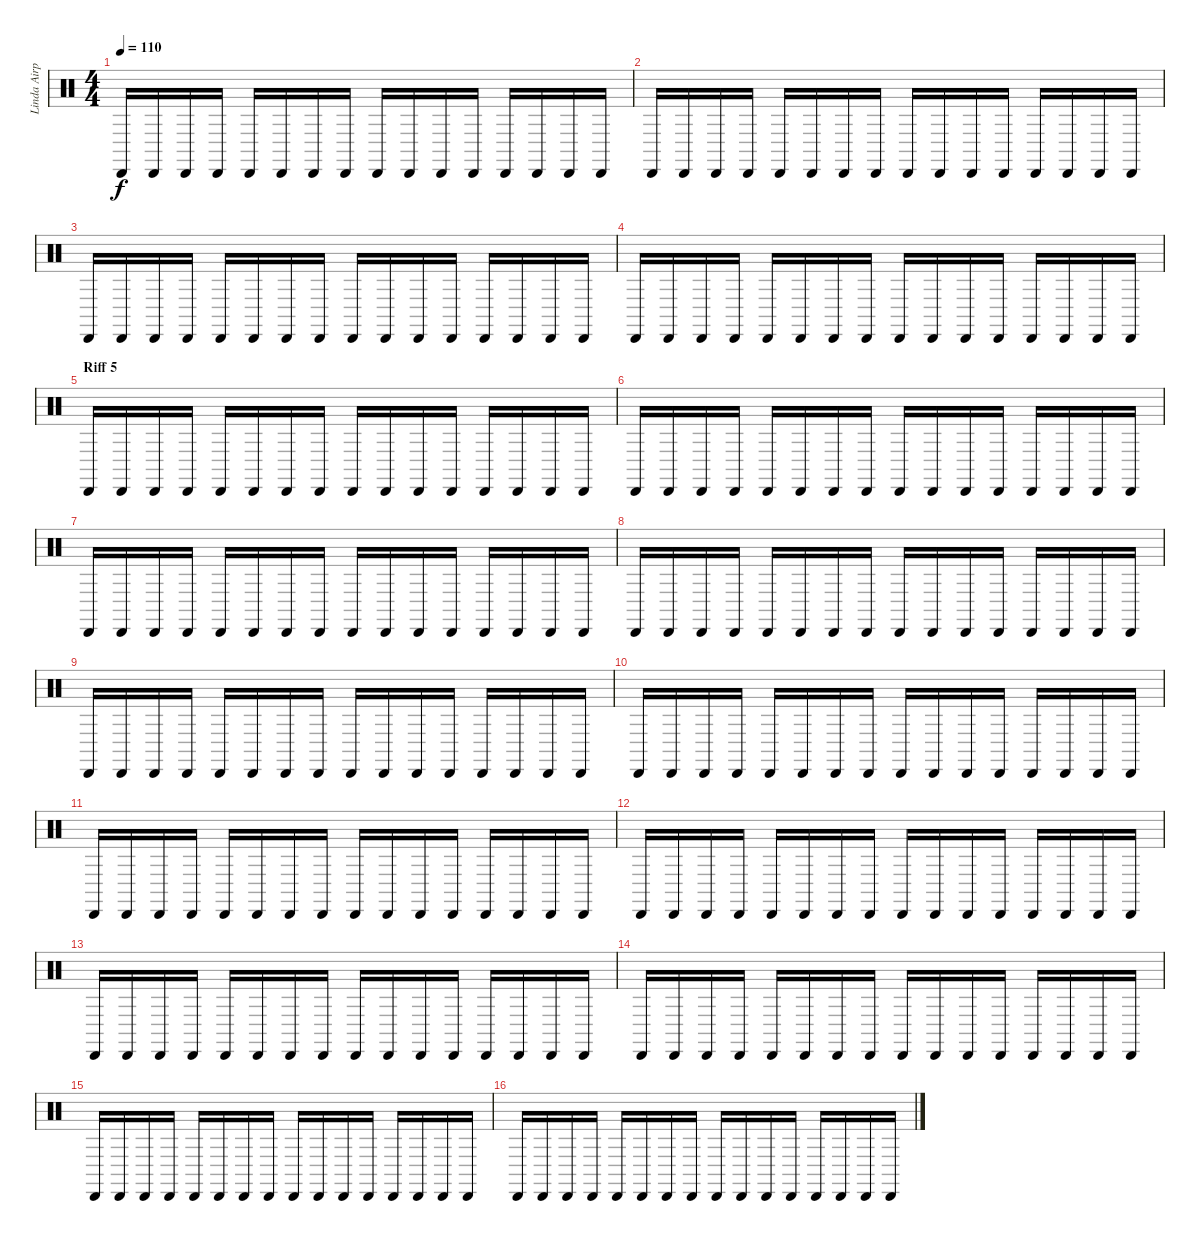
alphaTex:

\track ("Linda Airplane" "Linda Airp") {instrument percussion}
\staff {score}
\articulation defaults
\ts (4 4)
\tempo 110
\clef neutral
\ks c "Cabasa (hit)".16{dy f} "Cabasa (hit)".16 "Cabasa (hit)".16 "Cabasa (hit)".16 "Cabasa (hit)".16 "Cabasa (hit)".16 "Cabasa (hit)".16 "Cabasa (hit)".16 "Cabasa (hit)".16 "Cabasa (hit)".16 "Cabasa (hit)".16 "Cabasa (hit)".16 "Cabasa (hit)".16 "Cabasa (hit)".16 "Cabasa (hit)".16 "Cabasa (hit)".16
|
"Cabasa (hit)".16 "Cabasa (hit)".16 "Cabasa (hit)".16 "Cabasa (hit)".16 "Cabasa (hit)".16 "Cabasa (hit)".16 "Cabasa (hit)".16 "Cabasa (hit)".16 "Cabasa (hit)".16 "Cabasa (hit)".16 "Cabasa (hit)".16 "Cabasa (hit)".16 "Cabasa (hit)".16 "Cabasa (hit)".16 "Cabasa (hit)".16 "Cabasa (hit)".16 |
"Cabasa (hit)".16 "Cabasa (hit)".16 "Cabasa (hit)".16 "Cabasa (hit)".16 "Cabasa (hit)".16 "Cabasa (hit)".16 "Cabasa (hit)".16 "Cabasa (hit)".16 "Cabasa (hit)".16 "Cabasa (hit)".16 "Cabasa (hit)".16 "Cabasa (hit)".16 "Cabasa (hit)".16 "Cabasa (hit)".16 "Cabasa (hit)".16 "Cabasa (hit)".16 |
"Cabasa (hit)".16 "Cabasa (hit)".16 "Cabasa (hit)".16 "Cabasa (hit)".16 "Cabasa (hit)".16 "Cabasa (hit)".16 "Cabasa (hit)".16 "Cabasa (hit)".16 "Cabasa (hit)".16 "Cabasa (hit)".16 "Cabasa (hit)".16 "Cabasa (hit)".16 "Cabasa (hit)".16 "Cabasa (hit)".16 "Cabasa (hit)".16 "Cabasa (hit)".16 |
\section ("" "Riff 5")
"Cabasa (hit)".16 "Cabasa (hit)".16 "Cabasa (hit)".16 "Cabasa (hit)".16 "Cabasa (hit)".16 "Cabasa (hit)".16 "Cabasa (hit)".16 "Cabasa (hit)".16 "Cabasa (hit)".16 "Cabasa (hit)".16 "Cabasa (hit)".16 "Cabasa (hit)".16 "Cabasa (hit)".16 "Cabasa (hit)".16 "Cabasa (hit)".16 "Cabasa (hit)".16 |
"Cabasa (hit)".16 "Cabasa (hit)".16 "Cabasa (hit)".16 "Cabasa (hit)".16 "Cabasa (hit)".16 "Cabasa (hit)".16 "Cabasa (hit)".16 "Cabasa (hit)".16 "Cabasa (hit)".16 "Cabasa (hit)".16 "Cabasa (hit)".16 "Cabasa (hit)".16 "Cabasa (hit)".16 "Cabasa (hit)".16 "Cabasa (hit)".16 "Cabasa (hit)".16 |
"Cabasa (hit)".16 "Cabasa (hit)".16 "Cabasa (hit)".16 "Cabasa (hit)".16 "Cabasa (hit)".16 "Cabasa (hit)".16 "Cabasa (hit)".16 "Cabasa (hit)".16 "Cabasa (hit)".16 "Cabasa (hit)".16 "Cabasa (hit)".16 "Cabasa (hit)".16 "Cabasa (hit)".16 "Cabasa (hit)".16 "Cabasa (hit)".16 "Cabasa (hit)".16 |
"Cabasa (hit)".16 "Cabasa (hit)".16 "Cabasa (hit)".16 "Cabasa (hit)".16 "Cabasa (hit)".16 "Cabasa (hit)".16 "Cabasa (hit)".16 "Cabasa (hit)".16 "Cabasa (hit)".16 "Cabasa (hit)".16 "Cabasa (hit)".16 "Cabasa (hit)".16 "Cabasa (hit)".16 "Cabasa (hit)".16 "Cabasa (hit)".16 "Cabasa (hit)".16 |
"Cabasa (hit)".16 "Cabasa (hit)".16 "Cabasa (hit)".16 "Cabasa (hit)".16 "Cabasa (hit)".16 "Cabasa (hit)".16 "Cabasa (hit)".16 "Cabasa (hit)".16 "Cabasa (hit)".16 "Cabasa (hit)".16 "Cabasa (hit)".16 "Cabasa (hit)".16 "Cabasa (hit)".16 "Cabasa (hit)".16 "Cabasa (hit)".16 "Cabasa (hit)".16 |
"Cabasa (hit)".16 "Cabasa (hit)".16 "Cabasa (hit)".16 "Cabasa (hit)".16 "Cabasa (hit)".16 "Cabasa (hit)".16 "Cabasa (hit)".16 "Cabasa (hit)".16 "Cabasa (hit)".16 "Cabasa (hit)".16 "Cabasa (hit)".16 "Cabasa (hit)".16 "Cabasa (hit)".16 "Cabasa (hit)".16 "Cabasa (hit)".16 "Cabasa (hit)".16 |
"Cabasa (hit)".16 "Cabasa (hit)".16 "Cabasa (hit)".16 "Cabasa (hit)".16 "Cabasa (hit)".16 "Cabasa (hit)".16 "Cabasa (hit)".16 "Cabasa (hit)".16 "Cabasa (hit)".16 "Cabasa (hit)".16 "Cabasa (hit)".16 "Cabasa (hit)".16 "Cabasa (hit)".16 "Cabasa (hit)".16 "Cabasa (hit)".16 "Cabasa (hit)".16 |
"Cabasa (hit)".16 "Cabasa (hit)".16 "Cabasa (hit)".16 "Cabasa (hit)".16 "Cabasa (hit)".16 "Cabasa (hit)".16 "Cabasa (hit)".16 "Cabasa (hit)".16 "Cabasa (hit)".16 "Cabasa (hit)".16 "Cabasa (hit)".16 "Cabasa (hit)".16 "Cabasa (hit)".16 "Cabasa (hit)".16 "Cabasa (hit)".16 "Cabasa (hit)".16 |
"Cabasa (hit)".16 "Cabasa (hit)".16 "Cabasa (hit)".16 "Cabasa (hit)".16 "Cabasa (hit)".16 "Cabasa (hit)".16 "Cabasa (hit)".16 "Cabasa (hit)".16 "Cabasa (hit)".16 "Cabasa (hit)".16 "Cabasa (hit)".16 "Cabasa (hit)".16 "Cabasa (hit)".16 "Cabasa (hit)".16 "Cabasa (hit)".16 "Cabasa (hit)".16 |
"Cabasa (hit)".16 "Cabasa (hit)".16 "Cabasa (hit)".16 "Cabasa (hit)".16 "Cabasa (hit)".16 "Cabasa (hit)".16 "Cabasa (hit)".16 "Cabasa (hit)".16 "Cabasa (hit)".16 "Cabasa (hit)".16 "Cabasa (hit)".16 "Cabasa (hit)".16 "Cabasa (hit)".16 "Cabasa (hit)".16 "Cabasa (hit)".16 "Cabasa (hit)".16 |
"Cabasa (hit)".16 "Cabasa (hit)".16 "Cabasa (hit)".16 "Cabasa (hit)".16 "Cabasa (hit)".16 "Cabasa (hit)".16 "Cabasa (hit)".16 "Cabasa (hit)".16 "Cabasa (hit)".16 "Cabasa (hit)".16 "Cabasa (hit)".16 "Cabasa (hit)".16 "Cabasa (hit)".16 "Cabasa (hit)".16 "Cabasa (hit)".16 "Cabasa (hit)".16 |
"Cabasa (hit)".16 "Cabasa (hit)".16 "Cabasa (hit)".16 "Cabasa (hit)".16 "Cabasa (hit)".16 "Cabasa (hit)".16 "Cabasa (hit)".16 "Cabasa (hit)".16 "Cabasa (hit)".16 "Cabasa (hit)".16 "Cabasa (hit)".16 "Cabasa (hit)".16 "Cabasa (hit)".16 "Cabasa (hit)".16 "Cabasa (hit)".16 "Cabasa (hit)".16
